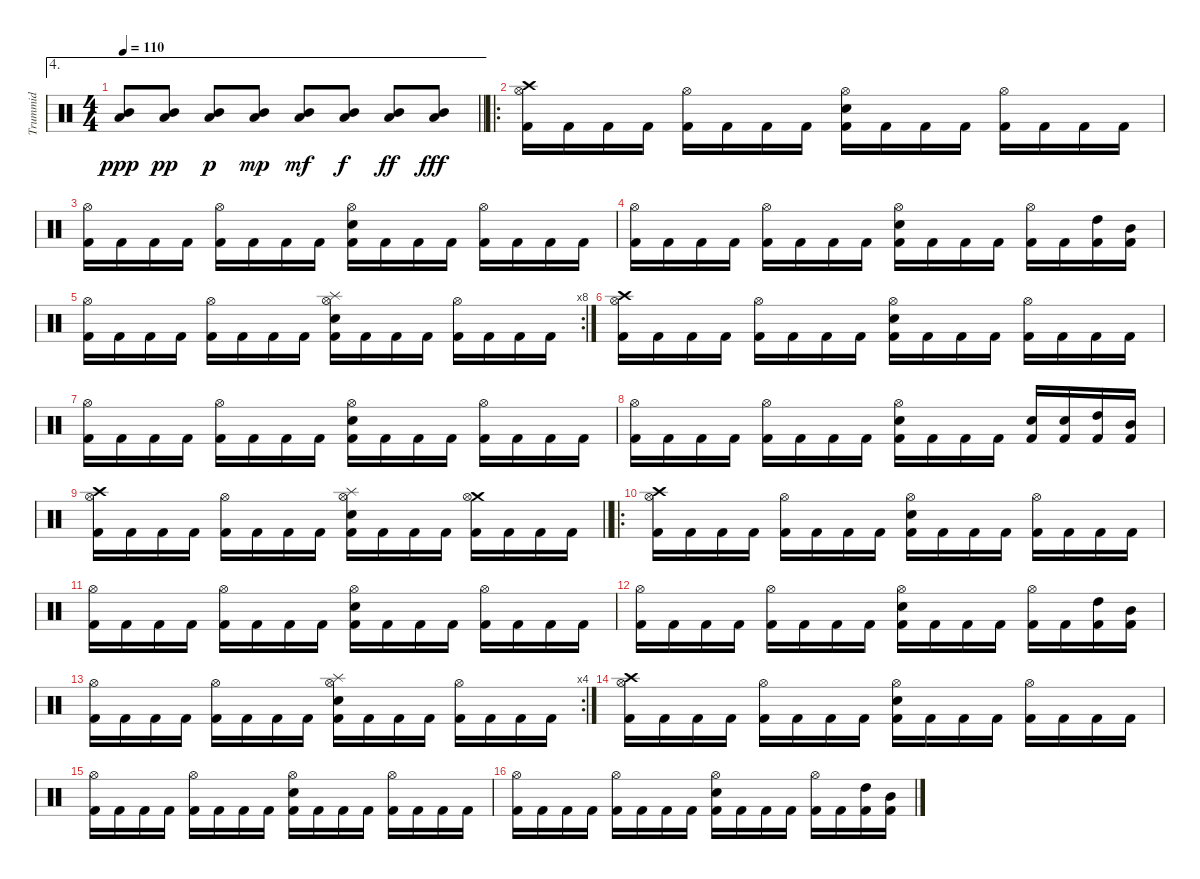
\track ("Trummid" "Trummid") {instrument percussion}
\staff {score}
\articulation defaults
\ae 4
\ts (4 4)
\tempo 110
\clef neutral
\barLineRight lightlight
\ks c
("Low Tom (hit)" "Mid Tom (hit)").8{dy ppp} ("Low Tom (hit)" "Mid Tom (hit)").8{dy pp} ("Low Tom (hit)" "Mid Tom (hit)").8{dy p} ("Low Tom (hit)" "Mid Tom (hit)").8{dy mp} ("Low Tom (hit)" "Mid Tom (hit)").8{dy mf} ("Low Tom (hit)" "Mid Tom (hit)").8{dy f} ("Low Tom (hit)" "Mid Tom (hit)").8{dy ff} ("Low Tom (hit)" "Mid Tom (hit)").8{dy fff} |
\ro
("Crash high (hit)" "Hi-Hat (open)" "Kick (hit) 2").16 "Kick (hit) 2".16 "Kick (hit) 2".16 "Kick (hit) 2".16 ("Hi-Hat (open)" "Kick (hit) 2").16 "Kick (hit) 2".16 "Kick (hit) 2".16 "Kick (hit) 2".16 ("Hi-Hat (open)" "Snare (hit) 2" "Kick (hit) 2").16 "Kick (hit) 2".16 "Kick (hit) 2".16 "Kick (hit) 2".16 ("Hi-Hat (open)" "Kick (hit) 2").16 "Kick (hit) 2".16 "Kick (hit) 2".16 "Kick (hit) 2".16 |
("Hi-Hat (open)" "Kick (hit) 2").16 "Kick (hit) 2".16 "Kick (hit) 2".16 "Kick (hit) 2".16 ("Hi-Hat (open)" "Kick (hit) 2").16 "Kick (hit) 2".16 "Kick (hit) 2".16 "Kick (hit) 2".16 ("Hi-Hat (open)" "Snare (hit) 2" "Kick (hit) 2").16 "Kick (hit) 2".16 "Kick (hit) 2".16 "Kick (hit) 2".16 ("Hi-Hat (open)" "Kick (hit) 2").16 "Kick (hit) 2".16 "Kick (hit) 2".16 "Kick (hit) 2".16 |
("Hi-Hat (open)" "Kick (hit) 2").16 "Kick (hit) 2".16 "Kick (hit) 2".16 "Kick (hit) 2".16 ("Hi-Hat (open)" "Kick (hit) 2").16 "Kick (hit) 2".16 "Kick (hit) 2".16 "Kick (hit) 2".16 ("Hi-Hat (open)" "Snare (hit) 2" "Kick (hit) 2").16 "Kick (hit) 2".16 "Kick (hit) 2".16 "Kick (hit) 2".16 ("Hi-Hat (open)" "Kick (hit) 2").16 "Kick (hit) 2".16 ("High Tom (hit)" "Kick (hit) 2").16 ("Mid Tom (hit)" "Kick (hit) 2").16 |
\rc 8
("Hi-Hat (open)" "Kick (hit) 2").16 "Kick (hit) 2".16 "Kick (hit) 2".16 "Kick (hit) 2".16 ("Hi-Hat (open)" "Kick (hit) 2").16 "Kick (hit) 2".16 "Kick (hit) 2".16 "Kick (hit) 2".16 ("Splash (hit)" "Hi-Hat (open)" "Snare (hit) 2" "Kick (hit) 2").16 "Kick (hit) 2".16 "Kick (hit) 2".16 "Kick (hit) 2".16 ("Hi-Hat (open)" "Kick (hit) 2").16 "Kick (hit) 2".16 "Kick (hit) 2".16 "Kick (hit) 2".16 |
("Crash high (hit)" "Hi-Hat (open)" "Kick (hit) 2").16 "Kick (hit) 2".16 "Kick (hit) 2".16 "Kick (hit) 2".16 ("Hi-Hat (open)" "Kick (hit) 2").16 "Kick (hit) 2".16 "Kick (hit) 2".16 "Kick (hit) 2".16 ("Hi-Hat (open)" "Snare (hit) 2" "Kick (hit) 2").16 "Kick (hit) 2".16 "Kick (hit) 2".16 "Kick (hit) 2".16 ("Hi-Hat (open)" "Kick (hit) 2").16 "Kick (hit) 2".16 "Kick (hit) 2".16 "Kick (hit) 2".16 |
("Hi-Hat (open)" "Kick (hit) 2").16 "Kick (hit) 2".16 "Kick (hit) 2".16 "Kick (hit) 2".16 ("Hi-Hat (open)" "Kick (hit) 2").16 "Kick (hit) 2".16 "Kick (hit) 2".16 "Kick (hit) 2".16 ("Hi-Hat (open)" "Snare (hit) 2" "Kick (hit) 2").16 "Kick (hit) 2".16 "Kick (hit) 2".16 "Kick (hit) 2".16 ("Hi-Hat (open)" "Kick (hit) 2").16 "Kick (hit) 2".16 "Kick (hit) 2".16 "Kick (hit) 2".16 |
("Hi-Hat (open)" "Kick (hit) 2").16 "Kick (hit) 2".16 "Kick (hit) 2".16 "Kick (hit) 2".16 ("Hi-Hat (open)" "Kick (hit) 2").16 "Kick (hit) 2".16 "Kick (hit) 2".16 "Kick (hit) 2".16 ("Hi-Hat (open)" "Snare (hit) 2" "Kick (hit) 2").16 "Kick (hit) 2".16 "Kick (hit) 2".16 "Kick (hit) 2".16 ("Snare (hit) 2" "Kick (hit) 2").16 ("Snare (hit) 2" "Kick (hit) 2").16 ("High Tom (hit)" "Kick (hit) 2").16 ("Mid Tom (hit)" "Kick (hit) 2").16 |
\barLineRight lightlight
("Crash high (hit)" "Hi-Hat (open)" "Kick (hit) 2").16 "Kick (hit) 2".16 "Kick (hit) 2".16 "Kick (hit) 2".16 ("Hi-Hat (open)" "Kick (hit) 2").16 "Kick (hit) 2".16 "Kick (hit) 2".16 "Kick (hit) 2".16 ("Splash (hit)" "Hi-Hat (open)" "Snare (hit) 2" "Kick (hit) 2").16 "Kick (hit) 2".16 "Kick (hit) 2".16 "Kick (hit) 2".16 ("Crash medium (hit)" "Hi-Hat (open)" "Kick (hit) 2").16 "Kick (hit) 2".16 "Kick (hit) 2".16 "Kick (hit) 2".16 |
\ro
("Crash high (hit)" "Hi-Hat (open)" "Kick (hit) 2").16 "Kick (hit) 2".16 "Kick (hit) 2".16 "Kick (hit) 2".16 ("Hi-Hat (open)" "Kick (hit) 2").16 "Kick (hit) 2".16 "Kick (hit) 2".16 "Kick (hit) 2".16 ("Hi-Hat (open)" "Snare (hit) 2" "Kick (hit) 2").16 "Kick (hit) 2".16 "Kick (hit) 2".16 "Kick (hit) 2".16 ("Hi-Hat (open)" "Kick (hit) 2").16 "Kick (hit) 2".16 "Kick (hit) 2".16 "Kick (hit) 2".16 |
("Hi-Hat (open)" "Kick (hit) 2").16 "Kick (hit) 2".16 "Kick (hit) 2".16 "Kick (hit) 2".16 ("Hi-Hat (open)" "Kick (hit) 2").16 "Kick (hit) 2".16 "Kick (hit) 2".16 "Kick (hit) 2".16 ("Hi-Hat (open)" "Snare (hit) 2" "Kick (hit) 2").16 "Kick (hit) 2".16 "Kick (hit) 2".16 "Kick (hit) 2".16 ("Hi-Hat (open)" "Kick (hit) 2").16 "Kick (hit) 2".16 "Kick (hit) 2".16 "Kick (hit) 2".16 |
("Hi-Hat (open)" "Kick (hit) 2").16 "Kick (hit) 2".16 "Kick (hit) 2".16 "Kick (hit) 2".16 ("Hi-Hat (open)" "Kick (hit) 2").16 "Kick (hit) 2".16 "Kick (hit) 2".16 "Kick (hit) 2".16 ("Hi-Hat (open)" "Snare (hit) 2" "Kick (hit) 2").16 "Kick (hit) 2".16 "Kick (hit) 2".16 "Kick (hit) 2".16 ("Hi-Hat (open)" "Kick (hit) 2").16 "Kick (hit) 2".16 ("High Tom (hit)" "Kick (hit) 2").16 ("Mid Tom (hit)" "Kick (hit) 2").16 |
\rc 4
("Hi-Hat (open)" "Kick (hit) 2").16 "Kick (hit) 2".16 "Kick (hit) 2".16 "Kick (hit) 2".16 ("Hi-Hat (open)" "Kick (hit) 2").16 "Kick (hit) 2".16 "Kick (hit) 2".16 "Kick (hit) 2".16 ("Splash (hit)" "Hi-Hat (open)" "Snare (hit) 2" "Kick (hit) 2").16 "Kick (hit) 2".16 "Kick (hit) 2".16 "Kick (hit) 2".16 ("Hi-Hat (open)" "Kick (hit) 2").16 "Kick (hit) 2".16 "Kick (hit) 2".16 "Kick (hit) 2".16 |
("Crash high (hit)" "Hi-Hat (open)" "Kick (hit) 2").16 "Kick (hit) 2".16 "Kick (hit) 2".16 "Kick (hit) 2".16 ("Hi-Hat (open)" "Kick (hit) 2").16 "Kick (hit) 2".16 "Kick (hit) 2".16 "Kick (hit) 2".16 ("Hi-Hat (open)" "Snare (hit) 2" "Kick (hit) 2").16 "Kick (hit) 2".16 "Kick (hit) 2".16 "Kick (hit) 2".16 ("Hi-Hat (open)" "Kick (hit) 2").16 "Kick (hit) 2".16 "Kick (hit) 2".16 "Kick (hit) 2".16 |
("Hi-Hat (open)" "Kick (hit) 2").16 "Kick (hit) 2".16 "Kick (hit) 2".16 "Kick (hit) 2".16 ("Hi-Hat (open)" "Kick (hit) 2").16 "Kick (hit) 2".16 "Kick (hit) 2".16 "Kick (hit) 2".16 ("Hi-Hat (open)" "Snare (hit) 2" "Kick (hit) 2").16 "Kick (hit) 2".16 "Kick (hit) 2".16 "Kick (hit) 2".16 ("Hi-Hat (open)" "Kick (hit) 2").16 "Kick (hit) 2".16 "Kick (hit) 2".16 "Kick (hit) 2".16 |
("Hi-Hat (open)" "Kick (hit) 2").16 "Kick (hit) 2".16 "Kick (hit) 2".16 "Kick (hit) 2".16 ("Hi-Hat (open)" "Kick (hit) 2").16 "Kick (hit) 2".16 "Kick (hit) 2".16 "Kick (hit) 2".16 ("Hi-Hat (open)" "Snare (hit) 2" "Kick (hit) 2").16 "Kick (hit) 2".16 "Kick (hit) 2".16 "Kick (hit) 2".16 ("Hi-Hat (open)" "Kick (hit) 2").16 "Kick (hit) 2".16 ("High Tom (hit)" "Kick (hit) 2").16 ("Mid Tom (hit)" "Kick (hit) 2").16
